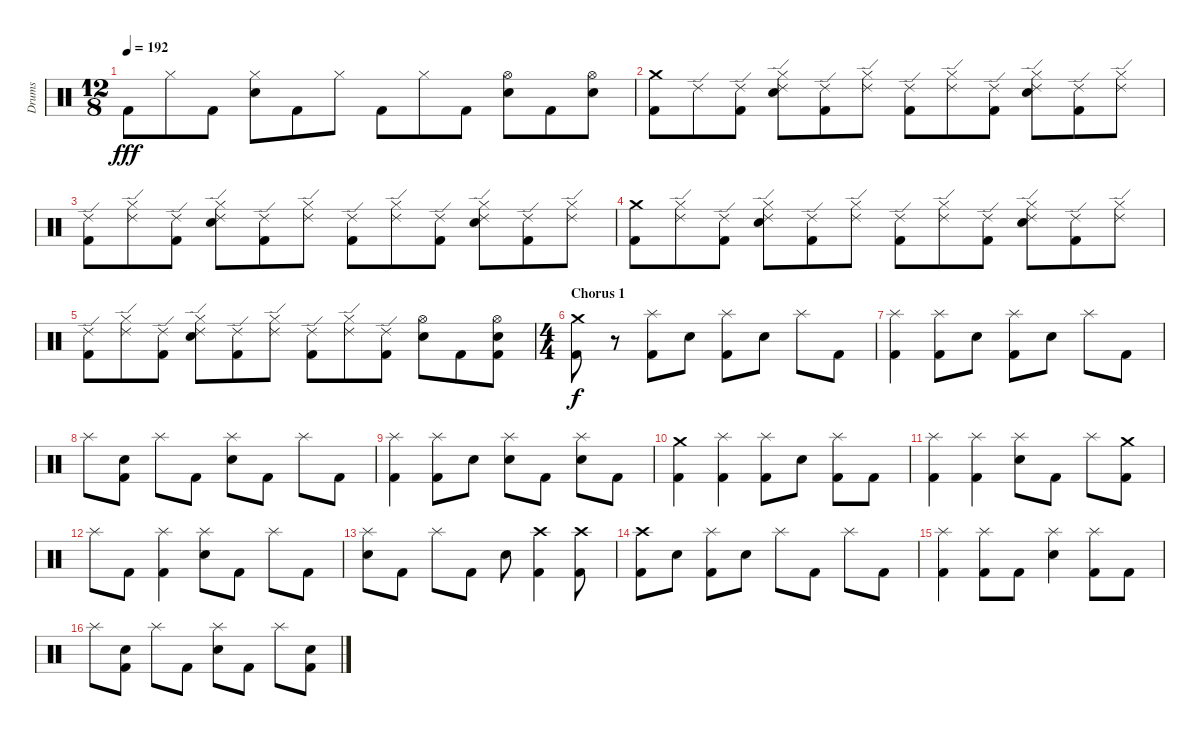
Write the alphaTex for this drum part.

\track ("Drums" "Drums") {instrument percussion}
\staff {score}
\articulation defaults
\ts (12 8)
\tempo 192
\clef neutral
\ks c "Kick (hit) 2".8{dy fff} "Hi-Hat (closed)".8 "Kick (hit) 2".8
("Hi-Hat (closed)" "Electric Snare (hit)").8 "Kick (hit) 2".8 "Hi-Hat (closed)".8 "Kick (hit) 2".8 "Hi-Hat (closed)".8 "Kick (hit) 2".8 ("Hi-Hat (open)" "Electric Snare (hit)").8 "Kick (hit) 2".8 ("Hi-Hat (open)" "Electric Snare (hit)").8 |
("Crash medium (hit)" "Kick (hit) 2").8 "Ride (edge) 2".8 ("Kick (hit) 2" "Ride (edge) 2").8 ("Hi-Hat (closed)" "Electric Snare (hit)" "Ride (edge) 2").8 ("Kick (hit) 2" "Ride (edge) 2").8 ("Hi-Hat (closed)" "Ride (edge) 2").8 ("Kick (hit) 2" "Ride (edge) 2").8 ("Hi-Hat (closed)" "Ride (edge) 2").8 ("Kick (hit) 2" "Ride (edge) 2").8 ("Hi-Hat (closed)" "Electric Snare (hit)" "Ride (edge) 2").8 ("Kick (hit) 2" "Ride (edge) 2").8 ("Hi-Hat (closed)" "Ride (edge) 2").8 |
("Kick (hit) 2" "Ride (edge) 2").8 ("Hi-Hat (closed)" "Ride (edge) 2").8 ("Kick (hit) 2" "Ride (edge) 2").8 ("Hi-Hat (closed)" "Electric Snare (hit)" "Ride (edge) 2").8 ("Kick (hit) 2" "Ride (edge) 2").8 ("Hi-Hat (closed)" "Ride (edge) 2").8 ("Kick (hit) 2" "Ride (edge) 2").8 ("Hi-Hat (closed)" "Ride (edge) 2").8 ("Kick (hit) 2" "Ride (edge) 2").8 ("Hi-Hat (closed)" "Electric Snare (hit)" "Ride (edge) 2").8 ("Kick (hit) 2" "Ride (edge) 2").8 ("Hi-Hat (closed)" "Ride (edge) 2").8 |
("Crash medium (hit)" "Kick (hit) 2").8 ("Hi-Hat (closed)" "Ride (edge) 2").8 ("Kick (hit) 2" "Ride (edge) 2").8 ("Hi-Hat (closed)" "Electric Snare (hit)" "Ride (edge) 2").8 ("Kick (hit) 2" "Ride (edge) 2").8 ("Hi-Hat (closed)" "Ride (edge) 2").8 ("Kick (hit) 2" "Ride (edge) 2").8 ("Hi-Hat (closed)" "Ride (edge) 2").8 ("Kick (hit) 2" "Ride (edge) 2").8 ("Hi-Hat (closed)" "Electric Snare (hit)" "Ride (edge) 2").8 ("Kick (hit) 2" "Ride (edge) 2").8 ("Hi-Hat (closed)" "Ride (edge) 2").8 |
("Kick (hit) 2" "Ride (edge) 2").8 ("Hi-Hat (closed)" "Ride (edge) 2").8 ("Kick (hit) 2" "Ride (edge) 2").8 ("Hi-Hat (closed)" "Electric Snare (hit)" "Ride (edge) 2").8 ("Kick (hit) 2" "Ride (edge) 2").8 ("Hi-Hat (closed)" "Ride (edge) 2").8 ("Kick (hit) 2" "Ride (edge) 2").8 ("Hi-Hat (closed)" "Ride (edge) 2").8 ("Kick (hit) 2" "Ride (edge) 2").8 ("Hi-Hat (open)" "Electric Snare (hit)").8 "Kick (hit) 2".8 ("Hi-Hat (open)" "Electric Snare (hit)" "Kick (hit) 2").8 |
\ts (4 4)
\section ("" "Chorus 1")
("Crash medium (hit)" "Kick (hit) 2").8{dy f} r.8 ("Splash (hit)" "Kick (hit) 2").8 "Electric Snare (hit)".8 ("Splash (hit)" "Kick (hit) 2").8 "Electric Snare (hit)".8 "Splash (hit)".8 "Kick (hit) 2".8 |
("Splash (hit)" "Kick (hit) 2").4 ("Splash (hit)" "Kick (hit) 2").8 "Electric Snare (hit)".8 ("Splash (hit)" "Kick (hit) 2").8 "Electric Snare (hit)".8 "Splash (hit)".8 "Kick (hit) 2".8 |
"Splash (hit)".8 ("Electric Snare (hit)" "Kick (hit) 2").8 "Splash (hit)".8 "Kick (hit) 2".8 ("Splash (hit)" "Electric Snare (hit)").8 "Kick (hit) 2".8 "Splash (hit)".8 "Kick (hit) 2".8 |
("Splash (hit)" "Kick (hit) 2").4 ("Splash (hit)" "Kick (hit) 2").8 "Electric Snare (hit)".8 ("Splash (hit)" "Electric Snare (hit)").8 "Kick (hit) 2".8 ("Splash (hit)" "Electric Snare (hit)").8 "Kick (hit) 2".8 |
("Crash medium (hit)" "Kick (hit) 2").4 ("Splash (hit)" "Kick (hit) 2").4 ("Splash (hit)" "Kick (hit) 2").8 "Electric Snare (hit)".8 ("Splash (hit)" "Kick (hit) 2").8 "Kick (hit) 2".8 |
("Splash (hit)" "Kick (hit) 2").4 ("Splash (hit)" "Kick (hit) 2").4 ("Splash (hit)" "Electric Snare (hit)").8 "Kick (hit) 2".8 "Splash (hit)".8 ("Crash medium (hit)" "Kick (hit) 2").8 |
"Splash (hit)".8 "Kick (hit) 2".8 ("Splash (hit)" "Kick (hit) 2").4 ("Splash (hit)" "Electric Snare (hit)").8 "Kick (hit) 2".8 "Splash (hit)".8 "Kick (hit) 2".8 |
("Splash (hit)" "Electric Snare (hit)").8 "Kick (hit) 2".8 "Splash (hit)".8 "Kick (hit) 2".8 "Electric Snare (hit)".8 ("Crash high (hit)" "Kick (hit) 2").4 ("Crash high (hit)" "Kick (hit) 2").8 |
("Crash high (hit)" "Kick (hit) 2").8 "Electric Snare (hit)".8 ("Splash (hit)" "Kick (hit) 2").8 "Electric Snare (hit)".8 "Splash (hit)".8 "Kick (hit) 2".8 "Splash (hit)".8 "Kick (hit) 2".8 |
("Splash (hit)" "Kick (hit) 2").4 ("Splash (hit)" "Kick (hit) 2").8 "Kick (hit) 2".8 ("Splash (hit)" "Electric Snare (hit)").4 ("Splash (hit)" "Kick (hit) 2").8 "Kick (hit) 2".8 |
"Splash (hit)".8 ("Electric Snare (hit)" "Kick (hit) 2").8 "Splash (hit)".8 "Kick (hit) 2".8 ("Splash (hit)" "Electric Snare (hit)").8 "Kick (hit) 2".8 "Splash (hit)".8 ("Electric Snare (hit)" "Kick (hit) 2").8
